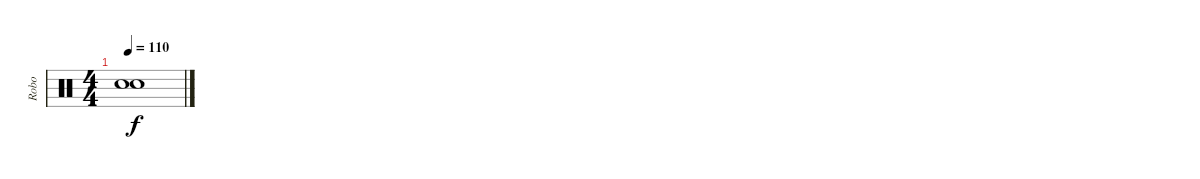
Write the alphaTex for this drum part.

\track ("Robo" "Robo") {instrument percussion}
\staff {score}
\articulation defaults
\ts (4 4)
\tempo 110
\clef neutral
\ks c
("Snare (hit)"{t} "Snare (hit)"{t}).1{dy f}
